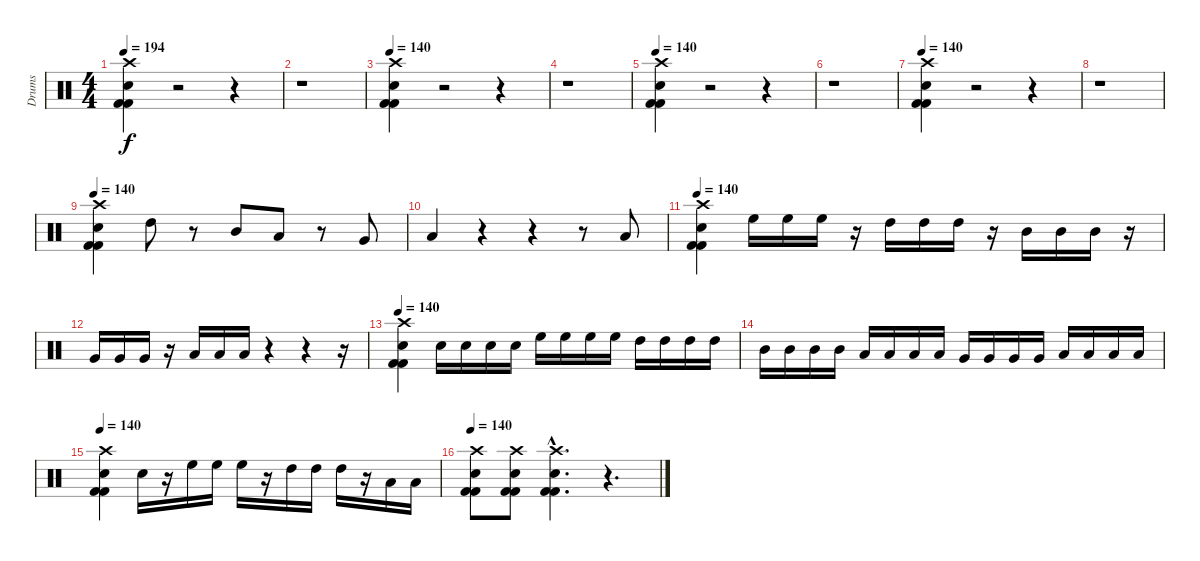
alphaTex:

\track ("Drums" "Drums") {instrument percussion}
\staff {score}
\articulation defaults
\ts (4 4)
\tempo 194
\tempo 140
\tempo 194
\clef neutral
\ks c
("Crash high (hit)" "Electric Snare (hit)" "Kick (hit) 2" "Kick (hit) 2").4{dy f} r.2 r.4 |
r.1 |
\tempo 140
("Crash high (hit)" "Electric Snare (hit)" "Kick (hit) 2" "Kick (hit) 2").4 r.2 r.4 |
r.1 |
\tempo 140
("Crash high (hit)" "Electric Snare (hit)" "Kick (hit) 2" "Kick (hit) 2").4 r.2 r.4 |
r.1 |
\tempo 140
("Crash high (hit)" "Electric Snare (hit)" "Kick (hit) 2" "Kick (hit) 2").4 r.2 r.4 |
r.1 |
\tempo 140
("Crash high (hit)" "Electric Snare (hit)" "Kick (hit) 2" "Kick (hit) 2").4 "High Tom (hit)".8 r.8 "Mid Tom (hit)".8 "Low Tom (hit)".8 r.8 "Very Low Tom (hit)".8 |
"Low Floor Tom (hit)".4 r.4 r.4 r.8 "Low Floor Tom (hit)".8 |
\tempo 140
("Crash high (hit)" "Electric Snare (hit)" "Kick (hit) 2" "Kick (hit) 2").4 "High Floor Tom (hit)".16 "High Floor Tom (hit)".16 "High Floor Tom (hit)".16 r.16 "High Tom (hit)".16 "High Tom (hit)".16 "High Tom (hit)".16 r.16 "Mid Tom (hit)".16 "Mid Tom (hit)".16 "Mid Tom (hit)".16 r.16 |
"Very Low Tom (hit)".16 "Very Low Tom (hit)".16 "Very Low Tom (hit)".16 r.16 "Low Floor Tom (hit)".16 "Low Floor Tom (hit)".16 "Low Floor Tom (hit)".16 r.4 r.4 r.16 |
\tempo 140
("Crash high (hit)" "Electric Snare (hit)" "Kick (hit) 2" "Kick (hit) 2").4 "Electric Snare (hit)".16 "Electric Snare (hit)".16 "Electric Snare (hit)".16 "Electric Snare (hit)".16 "High Floor Tom (hit)".16 "High Floor Tom (hit)".16 "High Floor Tom (hit)".16 "High Floor Tom (hit)".16 "High Tom (hit)".16 "High Tom (hit)".16 "High Tom (hit)".16 "High Tom (hit)".16 |
"Mid Tom (hit)".16 "Mid Tom (hit)".16 "Mid Tom (hit)".16 "Mid Tom (hit)".16 "Low Tom (hit)".16 "Low Tom (hit)".16 "Low Tom (hit)".16 "Low Tom (hit)".16 "Very Low Tom (hit)".16 "Very Low Tom (hit)".16 "Very Low Tom (hit)".16 "Very Low Tom (hit)".16 "Low Floor Tom (hit)".16 "Low Floor Tom (hit)".16 "Low Floor Tom (hit)".16 "Low Floor Tom (hit)".16 |
\tempo 140
("Crash high (hit)" "Electric Snare (hit)" "Kick (hit) 2" "Kick (hit) 2").4 "Electric Snare (hit)".16 r.16 "High Floor Tom (hit)".16 "High Floor Tom (hit)".16 "High Floor Tom (hit)".16 r.16 "High Tom (hit)".16 "High Tom (hit)".16 "High Tom (hit)".16 r.16 "Low Tom (hit)".16 "Low Tom (hit)".16 |
\tempo 140
("Crash high (hit)" "Electric Snare (hit)" "Kick (hit) 2" "Kick (hit) 2").8 ("Crash high (hit)" "Electric Snare (hit)" "Kick (hit) 2" "Kick (hit) 2").8 ("Crash high (hit)"{hac} "Electric Snare (hit)"{hac} "Kick (hit) 2"{hac} "Kick (hit) 2"{hac}).4{d} r.4{d}
